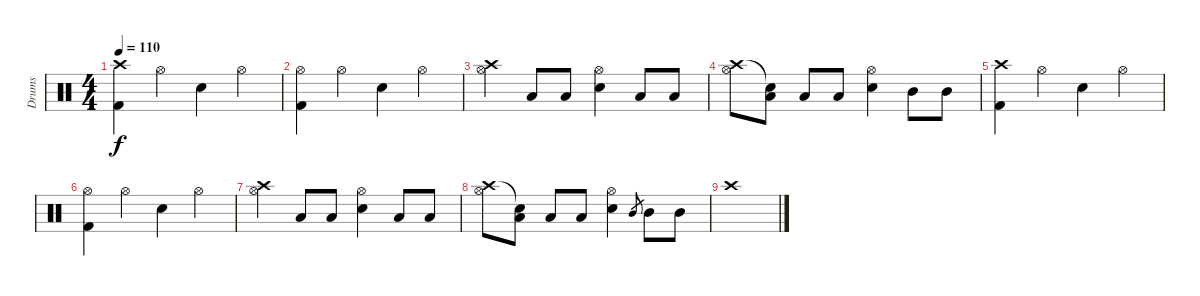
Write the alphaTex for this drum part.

\track ("Drums" "Drums") {instrument percussion}
\staff {score}
\articulation defaults
\ts (4 4)
\tempo 110
\clef neutral
\ks c
("Crash high (hit)" "Kick (hit) 2").4{dy f} "Hi-Hat (open)".4 "Snare (hit) 2".4 "Hi-Hat (open)".4 |
("Hi-Hat (open)" "Kick (hit) 2").4 "Hi-Hat (open)".4 "Snare (hit) 2".4 "Hi-Hat (open)".4 |
("Crash high (hit)" "Hi-Hat (open)").4 "Low Tom (hit)".8 "Low Tom (hit)".8 ("Hi-Hat (open)" "Snare (hit) 2").4 "Low Tom (hit)".8 "Low Tom (hit)".8 |
("Crash high (hit)" "Hi-Hat (open)").8 ("Snare (hit)"{t} "Low Tom (hit)").8 "Low Tom (hit)".8 "Low Tom (hit)".8 ("Hi-Hat (open)" "Snare (hit) 2").4 "Mid Tom (hit)".8 "Mid Tom (hit)".8 |
("Crash high (hit)" "Kick (hit) 2").4 "Hi-Hat (open)".4 "Snare (hit) 2".4 "Hi-Hat (open)".4 |
("Hi-Hat (open)" "Kick (hit) 2").4 "Hi-Hat (open)".4 "Snare (hit) 2".4 "Hi-Hat (open)".4 |
("Crash high (hit)" "Hi-Hat (open)").4 "Low Tom (hit)".8 "Low Tom (hit)".8 ("Hi-Hat (open)" "Snare (hit) 2").4 "Low Tom (hit)".8 "Low Tom (hit)".8 |
("Crash high (hit)" "Hi-Hat (open)").8 ("Snare (hit)"{t} "Low Tom (hit)").8 "Low Tom (hit)".8 "Low Tom (hit)".8 ("Hi-Hat (open)" "Snare (hit) 2").4 "Mid Tom (hit)".8{gr} "Mid Tom (hit)".8 "Mid Tom (hit)".8 |
"Crash high (hit)".1
